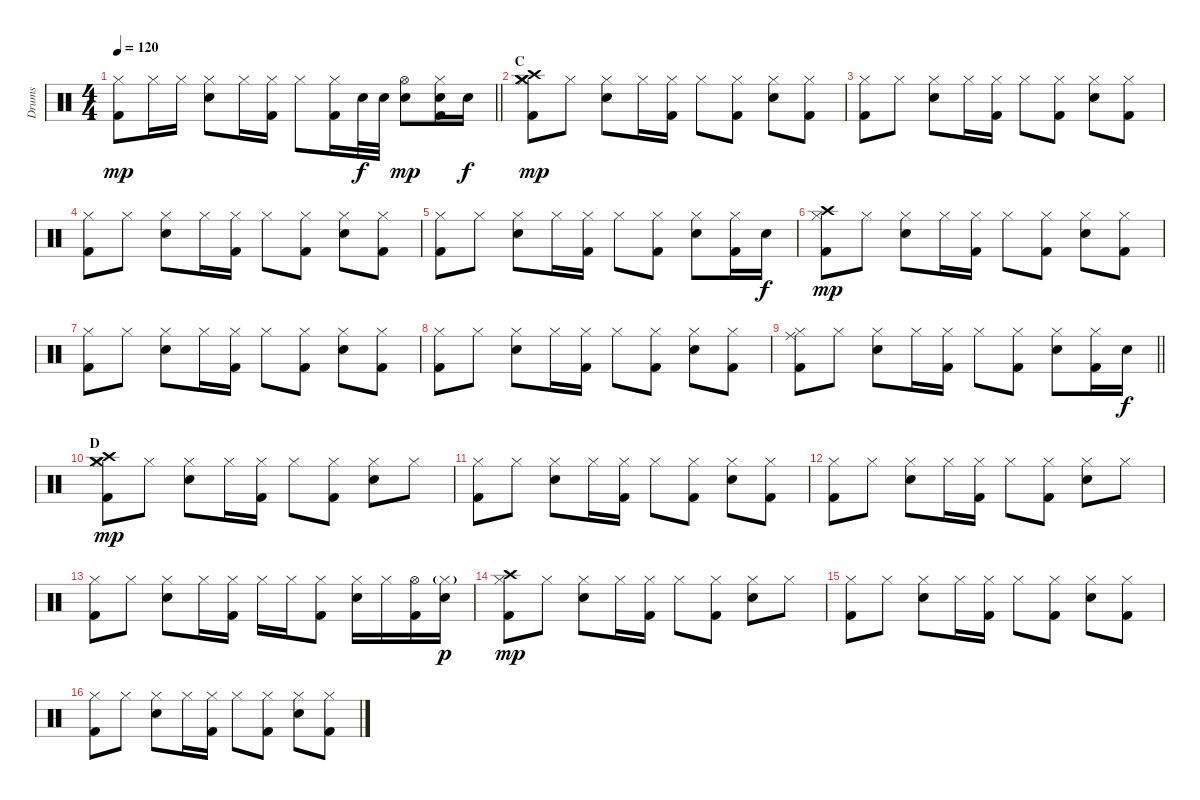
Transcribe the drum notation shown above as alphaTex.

\track ("Drums" "Drums") {instrument percussion}
\staff {score}
\articulation defaults
\ts (4 4)
\tempo 120
\clef neutral
\barLineRight lightlight
\ks c
("Hi-Hat (closed)" "Kick (hit) 2").8{dy mp} "Hi-Hat (closed)".16 "Hi-Hat (closed)".16 ("Hi-Hat (closed)" "Electric Snare (hit)").8 "Hi-Hat (closed)".16 ("Hi-Hat (closed)" "Kick (hit) 2").16 "Hi-Hat (closed)".8 ("Hi-Hat (closed)" "Kick (hit) 2").16 "Electric Snare (hit)".32{dy f} "Electric Snare (hit)".32 ("Hi-Hat (open)" "Electric Snare (hit)").8{dy mp} ("Hi-Hat (closed)" "Electric Snare (hit)" "Kick (hit) 2").16 "Electric Snare (hit)".16{dy f} |
\section ("" "C")
("Hi-Hat (closed)" "Crash medium (hit)" "Crash high (hit)" "Kick (hit) 2").8{dy mp} "Hi-Hat (closed)".8 ("Hi-Hat (closed)" "Electric Snare (hit)").8 "Hi-Hat (closed)".16 ("Hi-Hat (closed)" "Kick (hit) 2").16 "Hi-Hat (closed)".8 ("Hi-Hat (closed)" "Kick (hit) 2").8 ("Hi-Hat (closed)" "Electric Snare (hit)").8 ("Hi-Hat (closed)" "Kick (hit) 2").8 |
("Hi-Hat (closed)" "Kick (hit) 2").8 "Hi-Hat (closed)".8 ("Hi-Hat (closed)" "Electric Snare (hit)").8 "Hi-Hat (closed)".16 ("Hi-Hat (closed)" "Kick (hit) 2").16 "Hi-Hat (closed)".8 ("Hi-Hat (closed)" "Kick (hit) 2").8 ("Hi-Hat (closed)" "Electric Snare (hit)").8 ("Hi-Hat (closed)" "Kick (hit) 2").8 |
("Hi-Hat (closed)" "Kick (hit) 2").8 "Hi-Hat (closed)".8 ("Hi-Hat (closed)" "Electric Snare (hit)").8 "Hi-Hat (closed)".16 ("Hi-Hat (closed)" "Kick (hit) 2").16 "Hi-Hat (closed)".8 ("Hi-Hat (closed)" "Kick (hit) 2").8 ("Hi-Hat (closed)" "Electric Snare (hit)").8 ("Hi-Hat (closed)" "Kick (hit) 2").8 |
("Hi-Hat (closed)" "Kick (hit) 2").8 "Hi-Hat (closed)".8 ("Hi-Hat (closed)" "Electric Snare (hit)").8 "Hi-Hat (closed)".16 ("Hi-Hat (closed)" "Kick (hit) 2").16 "Hi-Hat (closed)".8 ("Hi-Hat (closed)" "Kick (hit) 2").8 ("Hi-Hat (closed)" "Electric Snare (hit)").8 ("Hi-Hat (closed)" "Kick (hit) 2").16 "Electric Snare (hit)".16{dy f} |
("Hi-Hat (closed)" "Crash high (hit)" "Kick (hit) 2").8{dy mp} "Hi-Hat (closed)".8 ("Hi-Hat (closed)" "Electric Snare (hit)").8 "Hi-Hat (closed)".16 ("Hi-Hat (closed)" "Kick (hit) 2").16 "Hi-Hat (closed)".8 ("Hi-Hat (closed)" "Kick (hit) 2").8 ("Hi-Hat (closed)" "Electric Snare (hit)").8 ("Hi-Hat (closed)" "Kick (hit) 2").8 |
("Hi-Hat (closed)" "Kick (hit) 2").8 "Hi-Hat (closed)".8 ("Hi-Hat (closed)" "Electric Snare (hit)").8 "Hi-Hat (closed)".16 ("Hi-Hat (closed)" "Kick (hit) 2").16 "Hi-Hat (closed)".8 ("Hi-Hat (closed)" "Kick (hit) 2").8 ("Hi-Hat (closed)" "Electric Snare (hit)").8 ("Hi-Hat (closed)" "Kick (hit) 2").8 |
("Hi-Hat (closed)" "Kick (hit) 2").8 "Hi-Hat (closed)".8 ("Hi-Hat (closed)" "Electric Snare (hit)").8 "Hi-Hat (closed)".16 ("Hi-Hat (closed)" "Kick (hit) 2").16 "Hi-Hat (closed)".8 ("Hi-Hat (closed)" "Kick (hit) 2").8 ("Hi-Hat (closed)" "Electric Snare (hit)").8 ("Hi-Hat (closed)" "Kick (hit) 2").8 |
\barLineRight lightlight
("Hi-Hat (closed)" "Ride (middle)" "Kick (hit) 2").8 "Hi-Hat (closed)".8 ("Hi-Hat (closed)" "Electric Snare (hit)").8 "Hi-Hat (closed)".16 ("Hi-Hat (closed)" "Kick (hit) 2").16 "Hi-Hat (closed)".8 ("Hi-Hat (closed)" "Kick (hit) 2").8 ("Hi-Hat (closed)" "Electric Snare (hit)").8 ("Hi-Hat (closed)" "Kick (hit) 2").16 "Electric Snare (hit)".16{dy f} |
\section ("" "D")
("Hi-Hat (closed)" "Crash medium (hit)" "Crash high (hit)" "Kick (hit) 2").8{dy mp} "Hi-Hat (closed)".8 ("Hi-Hat (closed)" "Electric Snare (hit)").8 "Hi-Hat (closed)".16 ("Hi-Hat (closed)" "Kick (hit) 2").16 "Hi-Hat (closed)".8 ("Hi-Hat (closed)" "Kick (hit) 2").8 ("Hi-Hat (closed)" "Electric Snare (hit)").8 "Hi-Hat (closed)".8 |
("Hi-Hat (closed)" "Kick (hit) 2").8 "Hi-Hat (closed)".8 ("Hi-Hat (closed)" "Electric Snare (hit)").8 "Hi-Hat (closed)".16 ("Hi-Hat (closed)" "Kick (hit) 2").16 "Hi-Hat (closed)".8 ("Hi-Hat (closed)" "Kick (hit) 2").8 ("Hi-Hat (closed)" "Electric Snare (hit)").8 ("Hi-Hat (closed)" "Kick (hit) 2").8 |
("Hi-Hat (closed)" "Kick (hit) 2").8 "Hi-Hat (closed)".8 ("Hi-Hat (closed)" "Electric Snare (hit)").8 "Hi-Hat (closed)".16 ("Hi-Hat (closed)" "Kick (hit) 2").16 "Hi-Hat (closed)".8 ("Hi-Hat (closed)" "Kick (hit) 2").8 ("Hi-Hat (closed)" "Electric Snare (hit)").8 "Hi-Hat (closed)".8 |
("Hi-Hat (closed)" "Kick (hit) 2").8 "Hi-Hat (closed)".8 ("Hi-Hat (closed)" "Electric Snare (hit)").8 "Hi-Hat (closed)".16 ("Hi-Hat (closed)" "Kick (hit) 2").16 "Hi-Hat (closed)".16 "Hi-Hat (closed)".16 ("Hi-Hat (closed)" "Kick (hit) 2").8 ("Hi-Hat (closed)" "Electric Snare (hit)").16 "Hi-Hat (closed)".16 ("Hi-Hat (open)" "Kick (hit) 2").16 ("Hi-Hat (closed)"{g} "Electric Snare (hit)").16{dy p} |
("Hi-Hat (closed)" "Crash high (hit)" "Kick (hit) 2").8{dy mp} "Hi-Hat (closed)".8 ("Hi-Hat (closed)" "Electric Snare (hit)").8 "Hi-Hat (closed)".16 ("Hi-Hat (closed)" "Kick (hit) 2").16 "Hi-Hat (closed)".8 ("Hi-Hat (closed)" "Kick (hit) 2").8 ("Hi-Hat (closed)" "Electric Snare (hit)").8 "Hi-Hat (closed)".8 |
("Hi-Hat (closed)" "Kick (hit) 2").8 "Hi-Hat (closed)".8 ("Hi-Hat (closed)" "Electric Snare (hit)").8 "Hi-Hat (closed)".16 ("Hi-Hat (closed)" "Kick (hit) 2").16 "Hi-Hat (closed)".8 ("Hi-Hat (closed)" "Kick (hit) 2").8 ("Hi-Hat (closed)" "Electric Snare (hit)").8 ("Hi-Hat (closed)" "Kick (hit) 2").8 |
("Hi-Hat (closed)" "Kick (hit) 2").8 "Hi-Hat (closed)".8 ("Hi-Hat (closed)" "Electric Snare (hit)").8 "Hi-Hat (closed)".16 ("Hi-Hat (closed)" "Kick (hit) 2").16 "Hi-Hat (closed)".8 ("Hi-Hat (closed)" "Kick (hit) 2").8 ("Hi-Hat (closed)" "Electric Snare (hit)").8 ("Hi-Hat (closed)" "Kick (hit) 2").8
